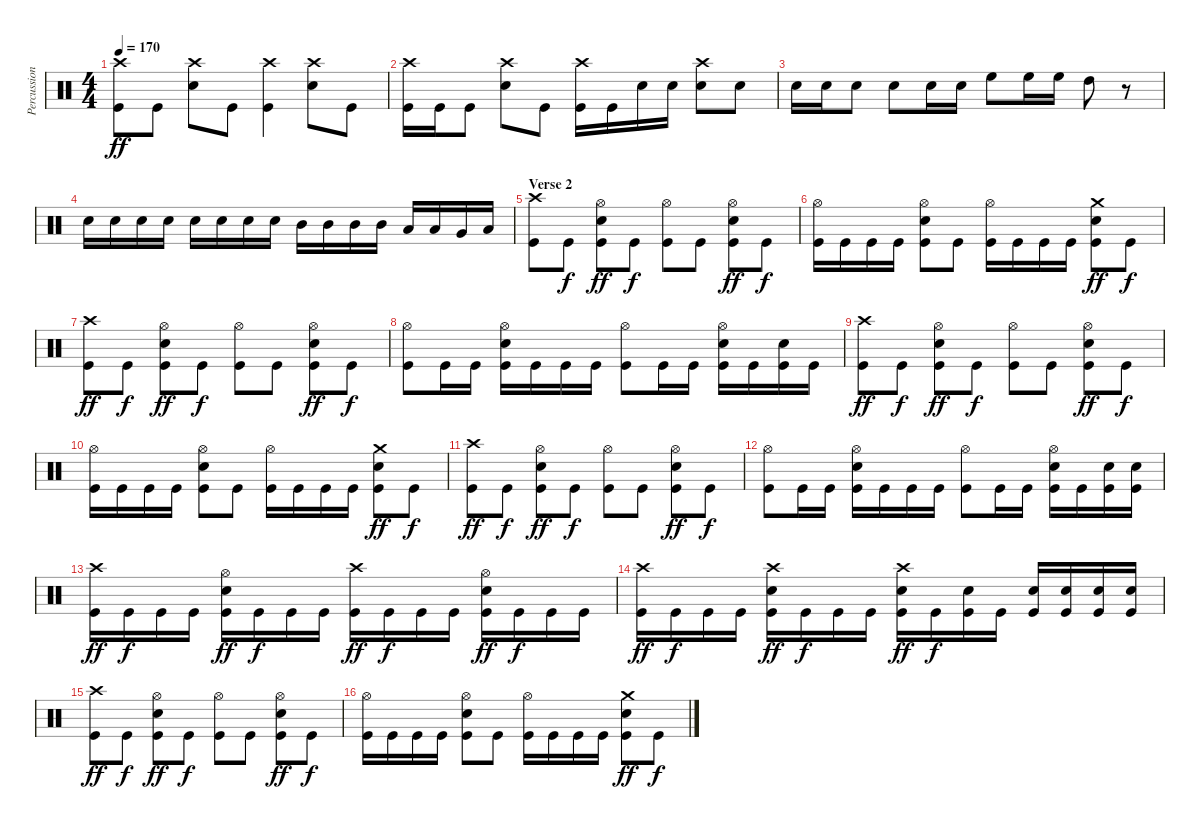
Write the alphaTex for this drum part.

\track ("Percussion" "Percussion") {instrument percussion}
\staff {score}
\articulation defaults
\ts (4 4)
\tempo 170
\clef neutral
\ks c
("Crash high (hit)" "Kick (hit)").8{dy ff} "Kick (hit)".8 ("Crash high (hit)" "Snare (hit) 2").8 "Kick (hit)".8 ("Crash high (hit)" "Kick (hit)").4 ("Crash high (hit)" "Snare (hit) 2").8 "Kick (hit)".8 |
("Crash high (hit)" "Kick (hit)").16 "Kick (hit)".16 "Kick (hit)".8 ("Crash high (hit)" "Snare (hit) 2").8 "Kick (hit)".8 ("Crash high (hit)" "Kick (hit)").16 "Kick (hit)".16 "Snare (hit) 2".16 "Snare (hit) 2".16 ("Crash high (hit)" "Snare (hit) 2").8 "Snare (hit) 2".8 |
"Snare (hit) 2".16 "Snare (hit) 2".16 "Snare (hit) 2".8 "Snare (hit) 2".8 "Snare (hit) 2".16 "Snare (hit) 2".16 "High Floor Tom (hit)".8 "High Floor Tom (hit)".16 "High Floor Tom (hit)".16 "High Tom (hit)".8 r.8 |
"Snare (hit) 2".16 "Snare (hit) 2".16 "Snare (hit) 2".16 "Snare (hit) 2".16 "Snare (hit) 2".16 "Snare (hit) 2".16 "Snare (hit) 2".16 "Snare (hit) 2".16 "Mid Tom (hit)".16 "Mid Tom (hit)".16 "Mid Tom (hit)".16 "Mid Tom (hit)".16 "Low Tom (hit)".16 "Low Tom (hit)".16 "Very Low Tom (hit)".16 "Low Floor Tom (hit)".16 |
\section ("" "Verse 2")
("Crash high (hit)" "Kick (hit)").8 "Kick (hit)".8{dy f} ("Hi-Hat (open)" "Snare (hit) 2" "Kick (hit)").8{dy ff} "Kick (hit)".8{dy f} ("Hi-Hat (open)" "Kick (hit)").8 "Kick (hit)".8 ("Hi-Hat (open)" "Snare (hit) 2" "Kick (hit)").8{dy ff} "Kick (hit)".8{dy f} |
("Hi-Hat (open)" "Kick (hit)").16 "Kick (hit)".16 "Kick (hit)".16 "Kick (hit)".16 ("Hi-Hat (open)" "Snare (hit) 2" "Kick (hit)").8 "Kick (hit)".8 ("Hi-Hat (open)" "Kick (hit)").16 "Kick (hit)".16 "Kick (hit)".16 "Kick (hit)".16 ("Crash medium (hit)" "Snare (hit) 2" "Kick (hit)").8{dy ff} "Kick (hit)".8{dy f} |
("Crash high (hit)" "Kick (hit)").8{dy ff} "Kick (hit)".8{dy f} ("Hi-Hat (open)" "Snare (hit) 2" "Kick (hit)").8{dy ff} "Kick (hit)".8{dy f} ("Hi-Hat (open)" "Kick (hit)").8 "Kick (hit)".8 ("Hi-Hat (open)" "Snare (hit) 2" "Kick (hit)").8{dy ff} "Kick (hit)".8{dy f} |
("Hi-Hat (open)" "Kick (hit)").8 "Kick (hit)".16 "Kick (hit)".16 ("Hi-Hat (open)" "Snare (hit) 2" "Kick (hit)").16 "Kick (hit)".16 "Kick (hit)".16 "Kick (hit)".16 ("Hi-Hat (open)" "Kick (hit)").8 "Kick (hit)".16 "Kick (hit)".16 ("Hi-Hat (open)" "Snare (hit) 2" "Kick (hit)").16 "Kick (hit)".16 ("Snare (hit) 2" "Kick (hit)").16 "Kick (hit)".16 |
("Crash high (hit)" "Kick (hit)").8{dy ff} "Kick (hit)".8{dy f} ("Hi-Hat (open)" "Snare (hit) 2" "Kick (hit)").8{dy ff} "Kick (hit)".8{dy f} ("Hi-Hat (open)" "Kick (hit)").8 "Kick (hit)".8 ("Hi-Hat (open)" "Snare (hit) 2" "Kick (hit)").8{dy ff} "Kick (hit)".8{dy f} |
("Hi-Hat (open)" "Kick (hit)").16 "Kick (hit)".16 "Kick (hit)".16 "Kick (hit)".16 ("Hi-Hat (open)" "Snare (hit) 2" "Kick (hit)").8 "Kick (hit)".8 ("Hi-Hat (open)" "Kick (hit)").16 "Kick (hit)".16 "Kick (hit)".16 "Kick (hit)".16 ("Crash medium (hit)" "Snare (hit) 2" "Kick (hit)").8{dy ff} "Kick (hit)".8{dy f} |
("Crash high (hit)" "Kick (hit)").8{dy ff} "Kick (hit)".8{dy f} ("Hi-Hat (open)" "Snare (hit) 2" "Kick (hit)").8{dy ff} "Kick (hit)".8{dy f} ("Hi-Hat (open)" "Kick (hit)").8 "Kick (hit)".8 ("Hi-Hat (open)" "Snare (hit) 2" "Kick (hit)").8{dy ff} "Kick (hit)".8{dy f} |
("Hi-Hat (open)" "Kick (hit)").8 "Kick (hit)".16 "Kick (hit)".16 ("Hi-Hat (open)" "Snare (hit) 2" "Kick (hit)").16 "Kick (hit)".16 "Kick (hit)".16 "Kick (hit)".16 ("Hi-Hat (open)" "Kick (hit)").8 "Kick (hit)".16 "Kick (hit)".16 ("Hi-Hat (open)" "Snare (hit) 2" "Kick (hit)").16 "Kick (hit)".16 ("Snare (hit) 2" "Kick (hit)").16 ("Snare (hit) 2" "Kick (hit)").16 |
("Crash high (hit)" "Kick (hit)").16{dy ff} "Kick (hit)".16{dy f} "Kick (hit)".16 "Kick (hit)".16 ("Hi-Hat (open)" "Snare (hit) 2" "Kick (hit)").16{dy ff} "Kick (hit)".16{dy f} "Kick (hit)".16 "Kick (hit)".16 ("Crash high (hit)" "Kick (hit)").16{dy ff} "Kick (hit)".16{dy f} "Kick (hit)".16 "Kick (hit)".16 ("Hi-Hat (open)" "Snare (hit) 2" "Kick (hit)").16{dy ff} "Kick (hit)".16{dy f} "Kick (hit)".16 "Kick (hit)".16 |
("Crash high (hit)" "Kick (hit)").16{dy ff} "Kick (hit)".16{dy f} "Kick (hit)".16 "Kick (hit)".16 ("Crash high (hit)" "Snare (hit) 2" "Kick (hit)").16{dy ff} "Kick (hit)".16{dy f} "Kick (hit)".16 "Kick (hit)".16 ("Crash high (hit)" "Snare (hit) 2" "Kick (hit)").16{dy ff} "Kick (hit)".16{dy f} ("Snare (hit) 2" "Kick (hit)").16 "Kick (hit)".16 ("Snare (hit) 2" "Kick (hit)").16 ("Snare (hit) 2" "Kick (hit)").16 ("Snare (hit) 2" "Kick (hit)").16 ("Snare (hit) 2" "Kick (hit)").16 |
("Crash high (hit)" "Kick (hit)").8{dy ff} "Kick (hit)".8{dy f} ("Hi-Hat (open)" "Snare (hit) 2" "Kick (hit)").8{dy ff} "Kick (hit)".8{dy f} ("Hi-Hat (open)" "Kick (hit)").8 "Kick (hit)".8 ("Hi-Hat (open)" "Snare (hit) 2" "Kick (hit)").8{dy ff} "Kick (hit)".8{dy f} |
("Hi-Hat (open)" "Kick (hit)").16 "Kick (hit)".16 "Kick (hit)".16 "Kick (hit)".16 ("Hi-Hat (open)" "Snare (hit) 2" "Kick (hit)").8 "Kick (hit)".8 ("Hi-Hat (open)" "Kick (hit)").16 "Kick (hit)".16 "Kick (hit)".16 "Kick (hit)".16 ("Crash medium (hit)" "Snare (hit) 2" "Kick (hit)").8{dy ff} "Kick (hit)".8{dy f}
